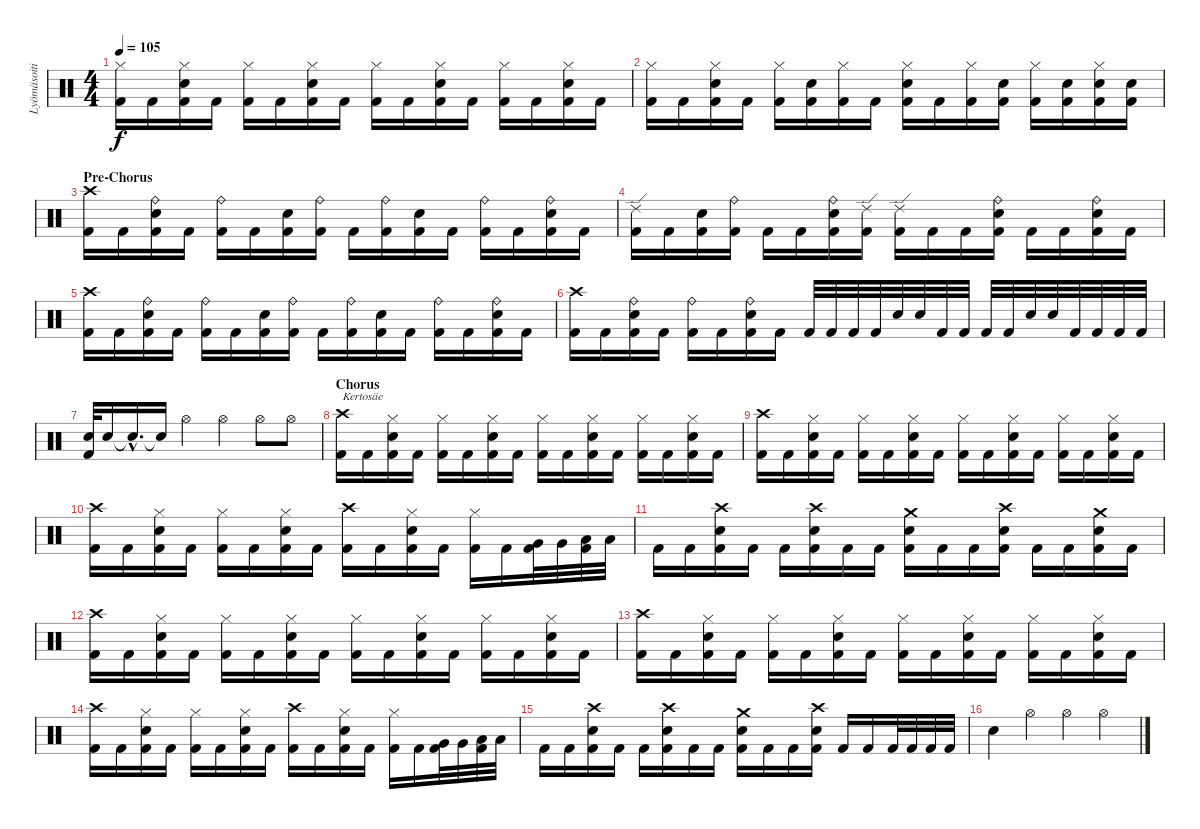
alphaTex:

\track ("Lyömäsoitin" "Lyömäsoiti") {instrument percussion}
\staff {score}
\articulation defaults
\ts (4 4)
\tempo 105
\clef neutral
\ks c
("Hi-Hat (closed)" "Kick (hit) 2").16{dy f} "Kick (hit) 2".16 ("Hi-Hat (closed)" "Snare (hit) 2" "Kick (hit) 2").16 "Kick (hit) 2".16 ("Hi-Hat (closed)" "Kick (hit) 2").16 "Kick (hit) 2".16 ("Hi-Hat (closed)" "Snare (hit) 2" "Kick (hit) 2").16 "Kick (hit) 2".16 ("Hi-Hat (closed)" "Kick (hit) 2").16 "Kick (hit) 2".16 ("Hi-Hat (closed)" "Snare (hit) 2" "Kick (hit) 2").16 "Kick (hit) 2".16 ("Hi-Hat (closed)" "Kick (hit) 2").16 "Kick (hit) 2".16 ("Hi-Hat (closed)" "Snare (hit) 2" "Kick (hit) 2").16 "Kick (hit) 2".16 |
("Hi-Hat (closed)" "Kick (hit) 2").16 "Kick (hit) 2".16 ("Hi-Hat (closed)" "Snare (hit) 2" "Kick (hit) 2").16 "Kick (hit) 2".16 ("Hi-Hat (closed)" "Kick (hit) 2").16 ("Snare (hit) 2" "Kick (hit) 2").16 ("Hi-Hat (closed)" "Kick (hit) 2").16 "Kick (hit) 2".16 ("Hi-Hat (closed)" "Snare (hit) 2" "Kick (hit) 2").16 "Kick (hit) 2".16 ("Hi-Hat (closed)" "Kick (hit) 2").16 ("Snare (hit) 2" "Kick (hit) 2").16 ("Hi-Hat (closed)" "Kick (hit) 2").16 ("Snare (hit) 2" "Kick (hit) 2").16 ("Hi-Hat (closed)" "Snare (hit) 2" "Kick (hit) 2").16 ("Snare (hit) 2" "Kick (hit) 2").16 |
\section ("" "Pre-Chorus")
("Crash high (hit)" "Kick (hit) 2").16 "Kick (hit) 2".16 ("Ride (bell)" "Snare (hit) 2" "Kick (hit) 2").16 "Kick (hit) 2".16 ("Ride (bell)" "Kick (hit) 2").16 "Kick (hit) 2".16 ("Snare (hit) 2" "Kick (hit) 2").16 ("Ride (bell)" "Kick (hit) 2").16 "Kick (hit) 2".16 ("Ride (bell)" "Kick (hit) 2").16 ("Snare (hit) 2" "Kick (hit) 2").16 "Kick (hit) 2".16 ("Ride (bell)" "Kick (hit) 2").16 "Kick (hit) 2".16 ("Ride (bell)" "Snare (hit) 2" "Kick (hit) 2").16 "Kick (hit) 2".16 |
("Ride (edge) 2" "Kick (hit) 2").16 "Kick (hit) 2".16 ("Snare (hit) 2" "Kick (hit) 2").16 ("Ride (bell)" "Kick (hit) 2").16 "Kick (hit) 2".16 "Kick (hit) 2".16 ("Ride (bell)" "Snare (hit) 2" "Kick (hit) 2").16 ("Ride (edge) 2" "Kick (hit) 2").16 ("Ride (edge) 2" "Kick (hit) 2").16 "Kick (hit) 2".16 "Kick (hit) 2".16 ("Ride (bell)" "Snare (hit) 2" "Kick (hit) 2").16 "Kick (hit) 2".16 "Kick (hit) 2".16 ("Ride (bell)" "Snare (hit) 2" "Kick (hit) 2").16 "Kick (hit) 2".16 |
("Crash high (hit)" "Kick (hit) 2").16 "Kick (hit) 2".16 ("Ride (bell)" "Snare (hit) 2" "Kick (hit) 2").16 "Kick (hit) 2".16 ("Ride (bell)" "Kick (hit) 2").16 "Kick (hit) 2".16 ("Snare (hit) 2" "Kick (hit) 2").16 ("Ride (bell)" "Kick (hit) 2").16 "Kick (hit) 2".16 ("Ride (bell)" "Kick (hit) 2").16 ("Snare (hit) 2" "Kick (hit) 2").16 "Kick (hit) 2".16 ("Ride (bell)" "Kick (hit) 2").16 "Kick (hit) 2".16 ("Ride (bell)" "Snare (hit) 2" "Kick (hit) 2").16 "Kick (hit) 2".16 |
("Crash high (hit)" "Kick (hit) 2").16 "Kick (hit) 2".16 ("Ride (bell)" "Snare (hit) 2" "Kick (hit) 2").16 "Kick (hit) 2".16 ("Ride (bell)" "Kick (hit) 2").16 "Kick (hit) 2".16 ("Ride (bell)" "Snare (hit) 2" "Kick (hit) 2").16 "Kick (hit) 2".16 "Kick (hit) 2".32 "Kick (hit) 2".32 "Kick (hit) 2".32 "Kick (hit) 2".32 "Snare (hit) 2".32 "Snare (hit) 2".32 "Kick (hit) 2".32 "Kick (hit) 2".32 "Kick (hit) 2".32 "Kick (hit) 2".32 "Snare (hit) 2".32 "Snare (hit) 2".32 "Kick (hit) 2".32 "Kick (hit) 2".32 "Kick (hit) 2".32 "Kick (hit) 2".32 |
("Snare (hit) 2" "Kick (hit) 2").32 "Snare (hit) 2".16 "Snare (hit)"{hac t}.16{d} "Snare (hit)"{t}.16 "Hi-Hat (open)".4 "Hi-Hat (open)".4 "Hi-Hat (open)".8 "Hi-Hat (open)".8 |
\section ("" "Chorus")
("Crash high (hit)" "Kick (hit) 2").16{txt "Kertosäe"} "Kick (hit) 2".16 ("Hi-Hat (closed)" "Snare (hit) 2" "Kick (hit) 2").16 "Kick (hit) 2".16 ("Hi-Hat (closed)" "Kick (hit) 2").16 "Kick (hit) 2".16 ("Hi-Hat (closed)" "Snare (hit) 2" "Kick (hit) 2").16 "Kick (hit) 2".16 ("Hi-Hat (closed)" "Kick (hit) 2").16 "Kick (hit) 2".16 ("Hi-Hat (closed)" "Snare (hit) 2" "Kick (hit) 2").16 "Kick (hit) 2".16 ("Hi-Hat (closed)" "Kick (hit) 2").16 "Kick (hit) 2".16 ("Hi-Hat (closed)" "Snare (hit) 2" "Kick (hit) 2").16 "Kick (hit) 2".16 |
("Crash high (hit)" "Kick (hit) 2").16 "Kick (hit) 2".16 ("Hi-Hat (closed)" "Snare (hit) 2" "Kick (hit) 2").16 "Kick (hit) 2".16 ("Hi-Hat (closed)" "Kick (hit) 2").16 "Kick (hit) 2".16 ("Hi-Hat (closed)" "Snare (hit) 2" "Kick (hit) 2").16 "Kick (hit) 2".16 ("Hi-Hat (closed)" "Kick (hit) 2").16 "Kick (hit) 2".16 ("Hi-Hat (closed)" "Snare (hit) 2" "Kick (hit) 2").16 "Kick (hit) 2".16 ("Hi-Hat (closed)" "Kick (hit) 2").16 "Kick (hit) 2".16 ("Hi-Hat (closed)" "Snare (hit) 2" "Kick (hit) 2").16 "Kick (hit) 2".16 |
("Crash high (hit)" "Kick (hit) 2").16 "Kick (hit) 2".16 ("Hi-Hat (closed)" "Snare (hit) 2" "Kick (hit) 2").16 "Kick (hit) 2".16 ("Hi-Hat (closed)" "Kick (hit) 2").16 "Kick (hit) 2".16 ("Hi-Hat (closed)" "Snare (hit) 2" "Kick (hit) 2").16 "Kick (hit) 2".16 ("Crash high (hit)" "Kick (hit) 2").16 "Kick (hit) 2".16 ("Hi-Hat (closed)" "Snare (hit) 2" "Kick (hit) 2").16 "Kick (hit) 2".16 ("Hi-Hat (closed)" "Kick (hit) 2").16 "Kick (hit) 2".16 ("Very Low Tom (hit)" "Kick (hit) 2").32 "Very Low Tom (hit)".32 ("Low Floor Tom (hit)" "Kick (hit) 2").32 "Low Floor Tom (hit)".32 |
"Kick (hit) 2".16 "Kick (hit) 2".16 ("Crash high (hit)" "Snare (hit) 2" "Kick (hit) 2").16 "Kick (hit) 2".16 "Kick (hit) 2".16 ("Crash high (hit)" "Snare (hit) 2" "Kick (hit) 2").16 "Kick (hit) 2".16 "Kick (hit) 2".16 ("Crash medium (hit)" "Snare (hit) 2" "Kick (hit) 2").16 "Kick (hit) 2".16 "Kick (hit) 2".16 ("Crash high (hit)" "Snare (hit) 2" "Kick (hit) 2").16 "Kick (hit) 2".16 "Kick (hit) 2".16 ("Crash medium (hit)" "Snare (hit) 2" "Kick (hit) 2").16 "Kick (hit) 2".16 |
("Crash high (hit)" "Kick (hit) 2").16 "Kick (hit) 2".16 ("Hi-Hat (closed)" "Snare (hit) 2" "Kick (hit) 2").16 "Kick (hit) 2".16 ("Hi-Hat (closed)" "Kick (hit) 2").16 "Kick (hit) 2".16 ("Hi-Hat (closed)" "Snare (hit) 2" "Kick (hit) 2").16 "Kick (hit) 2".16 ("Hi-Hat (closed)" "Kick (hit) 2").16 "Kick (hit) 2".16 ("Hi-Hat (closed)" "Snare (hit) 2" "Kick (hit) 2").16 "Kick (hit) 2".16 ("Hi-Hat (closed)" "Kick (hit) 2").16 "Kick (hit) 2".16 ("Hi-Hat (closed)" "Snare (hit) 2" "Kick (hit) 2").16 "Kick (hit) 2".16 |
("Crash high (hit)" "Kick (hit) 2").16 "Kick (hit) 2".16 ("Hi-Hat (closed)" "Snare (hit) 2" "Kick (hit) 2").16 "Kick (hit) 2".16 ("Hi-Hat (closed)" "Kick (hit) 2").16 "Kick (hit) 2".16 ("Hi-Hat (closed)" "Snare (hit) 2" "Kick (hit) 2").16 "Kick (hit) 2".16 ("Hi-Hat (closed)" "Kick (hit) 2").16 "Kick (hit) 2".16 ("Hi-Hat (closed)" "Snare (hit) 2" "Kick (hit) 2").16 "Kick (hit) 2".16 ("Hi-Hat (closed)" "Kick (hit) 2").16 "Kick (hit) 2".16 ("Hi-Hat (closed)" "Snare (hit) 2" "Kick (hit) 2").16 "Kick (hit) 2".16 |
("Crash high (hit)" "Kick (hit) 2").16 "Kick (hit) 2".16 ("Hi-Hat (closed)" "Snare (hit) 2" "Kick (hit) 2").16 "Kick (hit) 2".16 ("Hi-Hat (closed)" "Kick (hit) 2").16 "Kick (hit) 2".16 ("Hi-Hat (closed)" "Snare (hit) 2" "Kick (hit) 2").16 "Kick (hit) 2".16 ("Crash high (hit)" "Kick (hit) 2").16 "Kick (hit) 2".16 ("Hi-Hat (closed)" "Snare (hit) 2" "Kick (hit) 2").16 "Kick (hit) 2".16 ("Hi-Hat (closed)" "Kick (hit) 2").16 "Kick (hit) 2".16 ("Very Low Tom (hit)" "Kick (hit) 2").32 "Very Low Tom (hit)".32 ("Low Floor Tom (hit)" "Kick (hit) 2").32 "Low Floor Tom (hit)".32 |
"Kick (hit) 2".16 "Kick (hit) 2".16 ("Crash high (hit)" "Snare (hit) 2" "Kick (hit) 2").16 "Kick (hit) 2".16 "Kick (hit) 2".16 ("Crash high (hit)" "Snare (hit) 2" "Kick (hit) 2").16 "Kick (hit) 2".16 "Kick (hit) 2".16 ("Crash medium (hit)" "Snare (hit) 2" "Kick (hit) 2").16 "Kick (hit) 2".16 "Kick (hit) 2".16 ("Crash high (hit)" "Snare (hit) 2" "Kick (hit) 2").16 "Kick (hit) 2".16 "Kick (hit) 2".16 "Kick (hit) 2".32 "Kick (hit) 2".32 "Kick (hit) 2".32 "Kick (hit) 2".32 |
"Snare (hit) 2".4 "Hi-Hat (open)".4 "Hi-Hat (open)".4 "Hi-Hat (open)".4
